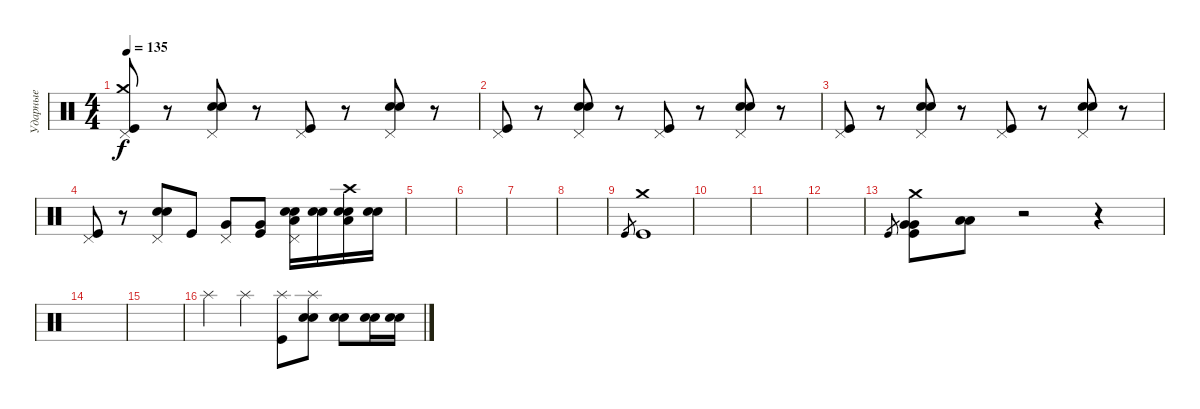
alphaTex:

\track ("Ударные" "Ударные") {instrument percussion}
\staff {score}
\articulation defaults
\ts (4 4)
\tempo 135
\clef neutral
\ks c
("Pedal Hi-Hat (hit)" "Crash medium (hit)" "Kick (hit)").8{dy f} r.8 ("Pedal Hi-Hat (hit)" "Electric Snare (hit)" "Electric Snare (hit)").8 r.8 ("Pedal Hi-Hat (hit)" "Kick (hit)").8 r.8 ("Pedal Hi-Hat (hit)" "Electric Snare (hit)" "Electric Snare (hit)").8 r.8 |
("Pedal Hi-Hat (hit)" "Kick (hit)").8 r.8 ("Pedal Hi-Hat (hit)" "Electric Snare (hit)" "Electric Snare (hit)").8 r.8 ("Pedal Hi-Hat (hit)" "Kick (hit)").8 r.8 ("Pedal Hi-Hat (hit)" "Electric Snare (hit)" "Electric Snare (hit)").8 r.8 |
("Pedal Hi-Hat (hit)" "Kick (hit)").8 r.8 ("Pedal Hi-Hat (hit)" "Electric Snare (hit)" "Electric Snare (hit)").8 r.8 ("Pedal Hi-Hat (hit)" "Kick (hit)").8 r.8 ("Pedal Hi-Hat (hit)" "Electric Snare (hit)" "Electric Snare (hit)").8 r.8 |
("Pedal Hi-Hat (hit)" "Kick (hit)").8 r.8 ("Pedal Hi-Hat (hit)" "Electric Snare (hit)" "Electric Snare (hit)").8 "Kick (hit)".8 ("Pedal Hi-Hat (hit)" "Very Low Tom (hit)").8 ("Very Low Tom (hit)" "Kick (hit)").8 ("Pedal Hi-Hat (hit)" "Electric Snare (hit)" "Electric Snare (hit)" "Low Floor Tom (hit)").16 ("Electric Snare (hit)" "Electric Snare (hit)").16 ("Crash high (hit)" "Electric Snare (hit)" "Electric Snare (hit)" "Low Floor Tom (hit)").16 ("Electric Snare (hit)" "Electric Snare (hit)").16 |
|
|
|
|
"Kick (hit)".8{gr} ("Crash medium (hit)" "Kick (hit)").1 |
|
|
|
"Kick (hit)".8{gr} ("Crash medium (hit)" "Very Low Tom (hit)" "Very Low Tom (hit)" "Kick (hit)").8 ("Low Floor Tom (hit)" "Low Floor Tom (hit)").8 r.2 r.4 |
|
|
"Splash (hit)".4 "Splash (hit)".4 ("Splash (hit)" "Kick (hit)").8 ("Splash (hit)" "Electric Snare (hit)" "Electric Snare (hit)").8 ("Electric Snare (hit)" "Electric Snare (hit)").8 ("Electric Snare (hit)" "Electric Snare (hit)").16 ("Electric Snare (hit)" "Electric Snare (hit)").16
